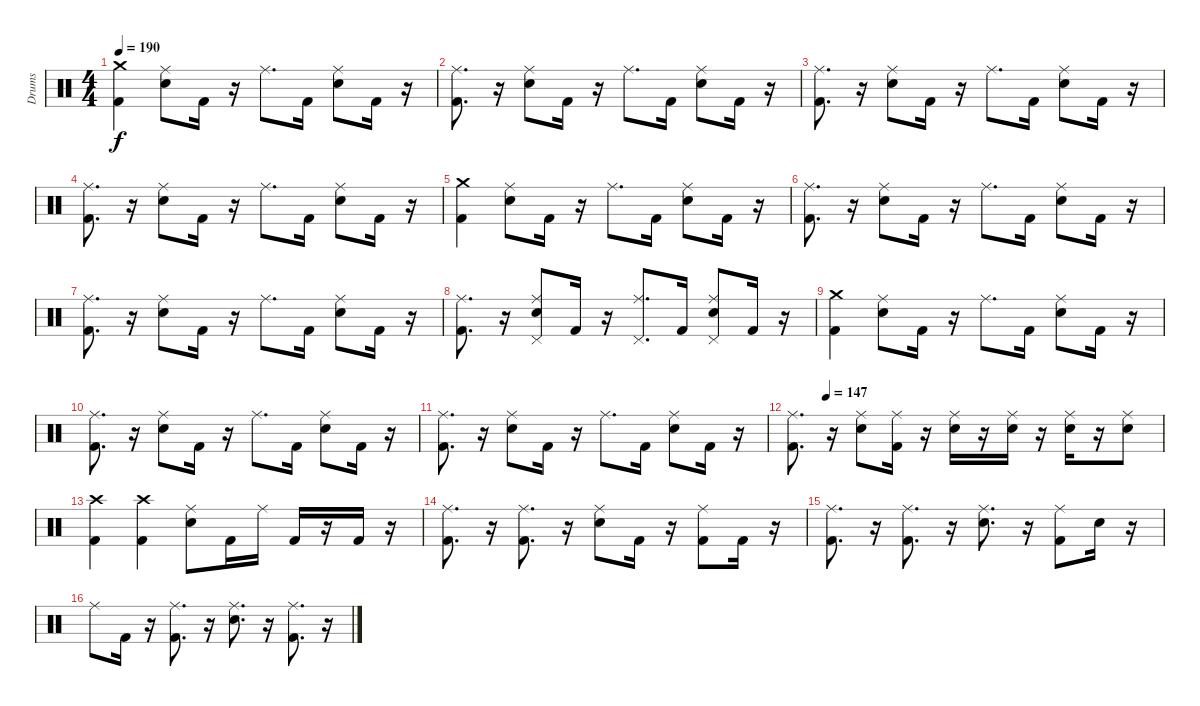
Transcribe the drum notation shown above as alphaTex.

\track ("Drums" "Drums") {instrument percussion}
\staff {score}
\articulation defaults
\ts (4 4)
\tempo 190
\clef neutral
\ks c
("Kick (hit) 2" "Crash medium (hit)").4{dy f} ("Electric Snare (hit)" "Ride (middle)").8 "Kick (hit) 2".16 r.16 "Ride (middle)".8{d} "Kick (hit) 2".16 ("Electric Snare (hit)" "Ride (middle)").8 "Kick (hit) 2".16 r.16 |
("Kick (hit) 2" "Ride (middle)").8{d} r.16 ("Electric Snare (hit)" "Ride (middle)").8 "Kick (hit) 2".16 r.16 "Ride (middle)".8{d} "Kick (hit) 2".16 ("Electric Snare (hit)" "Ride (middle)").8 "Kick (hit) 2".16 r.16 |
("Kick (hit) 2" "Ride (middle)").8{d} r.16 ("Electric Snare (hit)" "Ride (middle)").8 "Kick (hit) 2".16 r.16 "Ride (middle)".8{d} "Kick (hit) 2".16 ("Electric Snare (hit)" "Ride (middle)").8 "Kick (hit) 2".16 r.16 |
("Kick (hit) 2" "Ride (middle)").8{d} r.16 ("Electric Snare (hit)" "Ride (middle)").8 "Kick (hit) 2".16 r.16 "Ride (middle)".8{d} "Kick (hit) 2".16 ("Electric Snare (hit)" "Ride (middle)").8 "Kick (hit) 2".16 r.16 |
("Kick (hit) 2" "Crash medium (hit)").4 ("Electric Snare (hit)" "Ride (middle)").8 "Kick (hit) 2".16 r.16 "Ride (middle)".8{d} "Kick (hit) 2".16 ("Electric Snare (hit)" "Ride (middle)").8 "Kick (hit) 2".16 r.16 |
("Kick (hit) 2" "Ride (middle)").8{d} r.16 ("Electric Snare (hit)" "Ride (middle)").8 "Kick (hit) 2".16 r.16 "Ride (middle)".8{d} "Kick (hit) 2".16 ("Electric Snare (hit)" "Ride (middle)").8 "Kick (hit) 2".16 r.16 |
("Kick (hit) 2" "Ride (middle)").8{d} r.16 ("Electric Snare (hit)" "Ride (middle)").8 "Kick (hit) 2".16 r.16 "Ride (middle)".8{d} "Kick (hit) 2".16 ("Electric Snare (hit)" "Ride (middle)").8 "Kick (hit) 2".16 r.16 |
("Kick (hit) 2" "Ride (middle)").8{d} r.16 ("Electric Snare (hit)" "Ride (middle)" "Pedal Hi-Hat (hit)").8 "Kick (hit) 2".16 r.16 ("Ride (middle)" "Pedal Hi-Hat (hit)").8{d} "Kick (hit) 2".16 ("Electric Snare (hit)" "Ride (middle)" "Pedal Hi-Hat (hit)").8 "Kick (hit) 2".16 r.16 |
("Kick (hit) 2" "Crash medium (hit)").4 ("Electric Snare (hit)" "Ride (middle)").8 "Kick (hit) 2".16 r.16 "Ride (middle)".8{d} "Kick (hit) 2".16 ("Electric Snare (hit)" "Ride (middle)").8 "Kick (hit) 2".16 r.16 |
("Kick (hit) 2" "Ride (middle)").8{d} r.16 ("Electric Snare (hit)" "Ride (middle)").8 "Kick (hit) 2".16 r.16 "Ride (middle)".8{d} "Kick (hit) 2".16 ("Electric Snare (hit)" "Ride (middle)").8 "Kick (hit) 2".16 r.16 |
("Kick (hit) 2" "Ride (middle)").8{d} r.16 ("Electric Snare (hit)" "Ride (middle)").8 "Kick (hit) 2".16 r.16 "Ride (middle)".8{d} "Kick (hit) 2".16 ("Electric Snare (hit)" "Ride (middle)").8 "Kick (hit) 2".16 r.16 |
\tempo (147 0.09375)
("Kick (hit) 2" "Ride (middle)").8{d} r.16 ("Electric Snare (hit)" "Ride (middle)").8 ("Kick (hit) 2" "Ride (middle)").16 r.16 ("Electric Snare (hit)" "Ride (middle)").16 r.16 ("Electric Snare (hit)" "Ride (middle)").16 r.16 ("Electric Snare (hit)" "Ride (middle)").16 r.16 ("Electric Snare (hit)" "Ride (middle)").8 |
("Kick (hit) 2" "Crash high (hit)").4 ("Kick (hit) 2" "Crash high (hit)").4 ("Electric Snare (hit)" "Ride (middle)").8 "Kick (hit) 2".16 "Ride (middle)".16 "Kick (hit) 2".16 r.16 "Kick (hit) 2".16 r.16 |
("Kick (hit) 2" "Ride (middle)").8{d} r.16 ("Kick (hit) 2" "Ride (middle)").8{d} r.16 ("Electric Snare (hit)" "Ride (middle)").8 "Kick (hit) 2".16 r.16 ("Kick (hit) 2" "Ride (middle)").8 "Kick (hit) 2".16 r.16 |
("Kick (hit) 2" "Ride (middle)").8{d} r.16 ("Kick (hit) 2" "Ride (middle)").8{d} r.16 ("Electric Snare (hit)" "Ride (middle)").8{d} r.16 ("Kick (hit) 2" "Ride (middle)").8 "Electric Snare (hit)".16 r.16 |
"Ride (middle)".8 "Kick (hit) 2".16 r.16 ("Kick (hit) 2" "Ride (middle)").8{d} r.16 ("Electric Snare (hit)" "Ride (middle)").8{d} r.16 ("Kick (hit) 2" "Ride (middle)").8{d} r.16
